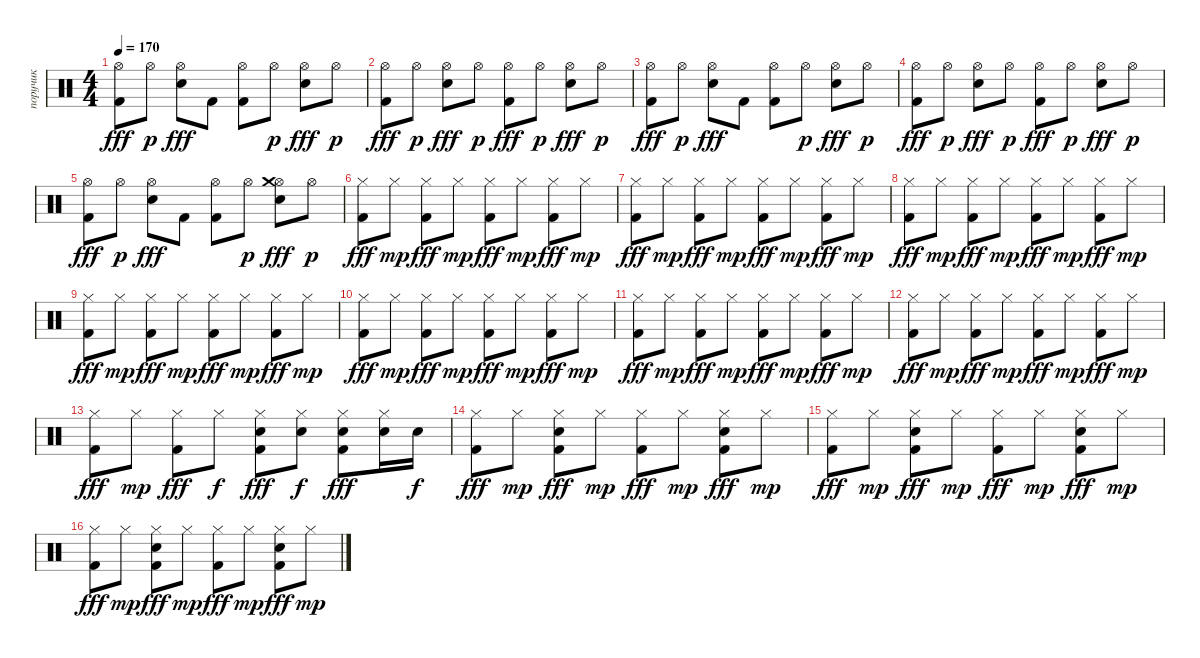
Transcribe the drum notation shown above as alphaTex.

\track ("поручик" "поручик") {instrument percussion}
\staff {score}
\articulation defaults
\ts (4 4)
\tempo 170
\clef neutral
\ks c
("Hi-Hat (open)" "Kick (hit) 2").8{dy fff} "Hi-Hat (open)".8{dy p} ("Hi-Hat (open)" "Electric Snare (hit)").8{dy fff} "Kick (hit) 2".8 ("Hi-Hat (open)" "Kick (hit) 2").8 "Hi-Hat (open)".8{dy p} ("Hi-Hat (open)" "Electric Snare (hit)").8{dy fff} "Hi-Hat (open)".8{dy p} |
("Hi-Hat (open)" "Kick (hit) 2").8{dy fff} "Hi-Hat (open)".8{dy p} ("Hi-Hat (open)" "Electric Snare (hit)").8{dy fff} "Hi-Hat (open)".8{dy p} ("Hi-Hat (open)" "Kick (hit) 2").8{dy fff} "Hi-Hat (open)".8{dy p} ("Hi-Hat (open)" "Electric Snare (hit)").8{dy fff} "Hi-Hat (open)".8{dy p} |
("Hi-Hat (open)" "Kick (hit) 2").8{dy fff} "Hi-Hat (open)".8{dy p} ("Hi-Hat (open)" "Electric Snare (hit)").8{dy fff} "Kick (hit) 2".8 ("Hi-Hat (open)" "Kick (hit) 2").8 "Hi-Hat (open)".8{dy p} ("Hi-Hat (open)" "Electric Snare (hit)").8{dy fff} "Hi-Hat (open)".8{dy p} |
("Hi-Hat (open)" "Kick (hit) 2").8{dy fff} "Hi-Hat (open)".8{dy p} ("Hi-Hat (open)" "Electric Snare (hit)").8{dy fff} "Hi-Hat (open)".8{dy p} ("Hi-Hat (open)" "Kick (hit) 2").8{dy fff} "Hi-Hat (open)".8{dy p} ("Hi-Hat (open)" "Electric Snare (hit)").8{dy fff} "Hi-Hat (open)".8{dy p} |
("Hi-Hat (open)" "Kick (hit) 2").8{dy fff} "Hi-Hat (open)".8{dy p} ("Hi-Hat (open)" "Electric Snare (hit)").8{dy fff} "Kick (hit) 2".8 ("Hi-Hat (open)" "Kick (hit) 2").8 "Hi-Hat (open)".8{dy p} ("Hi-Hat (open)" "Crash medium (hit)" "Electric Snare (hit)").8{dy fff} "Hi-Hat (open)".8{dy p} |
("Hi-Hat (closed)" "Kick (hit) 2").8{dy fff} "Hi-Hat (closed)".8{dy mp} ("Hi-Hat (closed)" "Kick (hit) 2").8{dy fff} "Hi-Hat (closed)".8{dy mp} ("Hi-Hat (closed)" "Kick (hit) 2").8{dy fff} "Hi-Hat (closed)".8{dy mp} ("Hi-Hat (closed)" "Kick (hit) 2").8{dy fff} "Hi-Hat (closed)".8{dy mp} |
("Hi-Hat (closed)" "Kick (hit) 2").8{dy fff} "Hi-Hat (closed)".8{dy mp} ("Hi-Hat (closed)" "Kick (hit) 2").8{dy fff} "Hi-Hat (closed)".8{dy mp} ("Hi-Hat (closed)" "Kick (hit) 2").8{dy fff} "Hi-Hat (closed)".8{dy mp} ("Hi-Hat (closed)" "Kick (hit) 2").8{dy fff} "Hi-Hat (closed)".8{dy mp} |
("Hi-Hat (closed)" "Kick (hit) 2").8{dy fff} "Hi-Hat (closed)".8{dy mp} ("Hi-Hat (closed)" "Kick (hit) 2").8{dy fff} "Hi-Hat (closed)".8{dy mp} ("Hi-Hat (closed)" "Kick (hit) 2").8{dy fff} "Hi-Hat (closed)".8{dy mp} ("Hi-Hat (closed)" "Kick (hit) 2").8{dy fff} "Hi-Hat (closed)".8{dy mp} |
("Hi-Hat (closed)" "Kick (hit) 2").8{dy fff} "Hi-Hat (closed)".8{dy mp} ("Hi-Hat (closed)" "Kick (hit) 2").8{dy fff} "Hi-Hat (closed)".8{dy mp} ("Hi-Hat (closed)" "Kick (hit) 2").8{dy fff} "Hi-Hat (closed)".8{dy mp} ("Hi-Hat (closed)" "Kick (hit) 2").8{dy fff} "Hi-Hat (closed)".8{dy mp} |
("Hi-Hat (closed)" "Kick (hit) 2").8{dy fff} "Hi-Hat (closed)".8{dy mp} ("Hi-Hat (closed)" "Kick (hit) 2").8{dy fff} "Hi-Hat (closed)".8{dy mp} ("Hi-Hat (closed)" "Kick (hit) 2").8{dy fff} "Hi-Hat (closed)".8{dy mp} ("Hi-Hat (closed)" "Kick (hit) 2").8{dy fff} "Hi-Hat (closed)".8{dy mp} |
("Hi-Hat (closed)" "Kick (hit) 2").8{dy fff} "Hi-Hat (closed)".8{dy mp} ("Hi-Hat (closed)" "Kick (hit) 2").8{dy fff} "Hi-Hat (closed)".8{dy mp} ("Hi-Hat (closed)" "Kick (hit) 2").8{dy fff} "Hi-Hat (closed)".8{dy mp} ("Hi-Hat (closed)" "Kick (hit) 2").8{dy fff} "Hi-Hat (closed)".8{dy mp} |
("Hi-Hat (closed)" "Kick (hit) 2").8{dy fff} "Hi-Hat (closed)".8{dy mp} ("Hi-Hat (closed)" "Kick (hit) 2").8{dy fff} "Hi-Hat (closed)".8{dy mp} ("Hi-Hat (closed)" "Kick (hit) 2").8{dy fff} "Hi-Hat (closed)".8{dy mp} ("Hi-Hat (closed)" "Kick (hit) 2").8{dy fff} "Hi-Hat (closed)".8{dy mp} |
("Hi-Hat (closed)" "Kick (hit) 2").8{dy fff} "Hi-Hat (closed)".8{dy mp} ("Hi-Hat (closed)" "Kick (hit) 2").8{dy fff} "Hi-Hat (closed)".8{dy f} ("Hi-Hat (closed)" "Electric Snare (hit)" "Kick (hit) 2").8{dy fff} ("Hi-Hat (closed)" "Electric Snare (hit)").8{dy f} ("Hi-Hat (closed)" "Electric Snare (hit)" "Kick (hit) 2").8{dy fff} ("Hi-Hat (closed)" "Electric Snare (hit)").16 "Electric Snare (hit)".16{dy f} |
("Hi-Hat (closed)" "Kick (hit) 2").8{dy fff} "Hi-Hat (closed)".8{dy mp} ("Hi-Hat (closed)" "Electric Snare (hit)" "Kick (hit) 2").8{dy fff} "Hi-Hat (closed)".8{dy mp} ("Hi-Hat (closed)" "Kick (hit) 2").8{dy fff} "Hi-Hat (closed)".8{dy mp} ("Hi-Hat (closed)" "Electric Snare (hit)" "Kick (hit) 2").8{dy fff} "Hi-Hat (closed)".8{dy mp} |
("Hi-Hat (closed)" "Kick (hit) 2").8{dy fff} "Hi-Hat (closed)".8{dy mp} ("Hi-Hat (closed)" "Electric Snare (hit)" "Kick (hit) 2").8{dy fff} "Hi-Hat (closed)".8{dy mp} ("Hi-Hat (closed)" "Kick (hit) 2").8{dy fff} "Hi-Hat (closed)".8{dy mp} ("Hi-Hat (closed)" "Electric Snare (hit)" "Kick (hit) 2").8{dy fff} "Hi-Hat (closed)".8{dy mp} |
("Hi-Hat (closed)" "Kick (hit) 2").8{dy fff} "Hi-Hat (closed)".8{dy mp} ("Hi-Hat (closed)" "Electric Snare (hit)" "Kick (hit) 2").8{dy fff} "Hi-Hat (closed)".8{dy mp} ("Hi-Hat (closed)" "Kick (hit) 2").8{dy fff} "Hi-Hat (closed)".8{dy mp} ("Hi-Hat (closed)" "Electric Snare (hit)" "Kick (hit) 2").8{dy fff} "Hi-Hat (closed)".8{dy mp}
